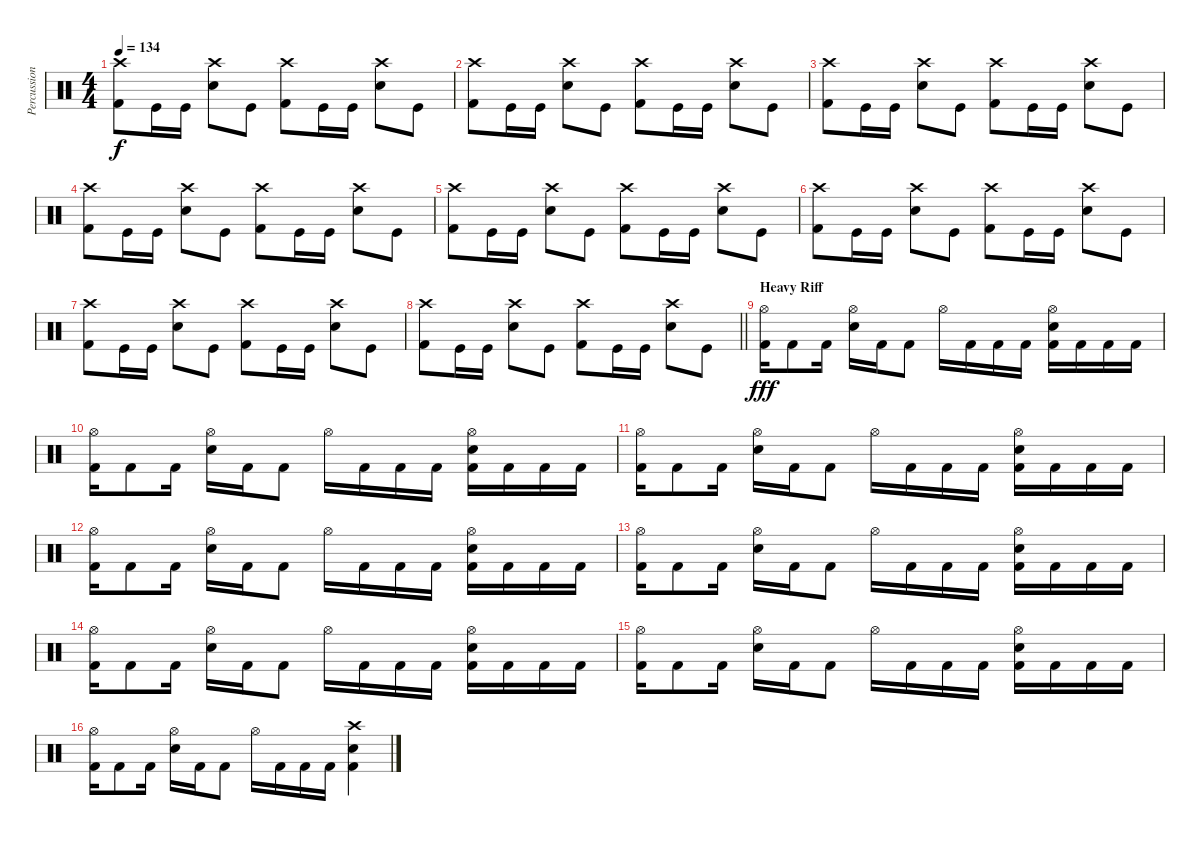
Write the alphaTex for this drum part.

\track ("Percussion" "Percussion") {instrument percussion}
\staff {score}
\articulation defaults
\ts (4 4)
\tempo 134
\clef neutral
\ks c
("Crash high (hit)" "Kick (hit) 2").8{dy f} "Kick (hit)".16 "Kick (hit)".16 ("Crash high (hit)" "Electric Snare (hit)").8 "Kick (hit)".8 ("Crash high (hit)" "Kick (hit) 2").8 "Kick (hit)".16 "Kick (hit)".16 ("Crash high (hit)" "Electric Snare (hit)").8 "Kick (hit)".8 |
("Crash high (hit)" "Kick (hit) 2").8 "Kick (hit)".16 "Kick (hit)".16 ("Crash high (hit)" "Electric Snare (hit)").8 "Kick (hit)".8 ("Crash high (hit)" "Kick (hit) 2").8 "Kick (hit)".16 "Kick (hit)".16 ("Crash high (hit)" "Electric Snare (hit)").8 "Kick (hit)".8 |
("Crash high (hit)" "Kick (hit) 2").8 "Kick (hit)".16 "Kick (hit)".16 ("Crash high (hit)" "Electric Snare (hit)").8 "Kick (hit)".8 ("Crash high (hit)" "Kick (hit) 2").8 "Kick (hit)".16 "Kick (hit)".16 ("Crash high (hit)" "Electric Snare (hit)").8 "Kick (hit)".8 |
("Crash high (hit)" "Kick (hit) 2").8 "Kick (hit)".16 "Kick (hit)".16 ("Crash high (hit)" "Electric Snare (hit)").8 "Kick (hit)".8 ("Crash high (hit)" "Kick (hit) 2").8 "Kick (hit)".16 "Kick (hit)".16 ("Crash high (hit)" "Electric Snare (hit)").8 "Kick (hit)".8 |
("Crash high (hit)" "Kick (hit) 2").8 "Kick (hit)".16 "Kick (hit)".16 ("Crash high (hit)" "Electric Snare (hit)").8 "Kick (hit)".8 ("Crash high (hit)" "Kick (hit) 2").8 "Kick (hit)".16 "Kick (hit)".16 ("Crash high (hit)" "Electric Snare (hit)").8 "Kick (hit)".8 |
("Crash high (hit)" "Kick (hit) 2").8 "Kick (hit)".16 "Kick (hit)".16 ("Crash high (hit)" "Electric Snare (hit)").8 "Kick (hit)".8 ("Crash high (hit)" "Kick (hit) 2").8 "Kick (hit)".16 "Kick (hit)".16 ("Crash high (hit)" "Electric Snare (hit)").8 "Kick (hit)".8 |
("Crash high (hit)" "Kick (hit) 2").8 "Kick (hit)".16 "Kick (hit)".16 ("Crash high (hit)" "Electric Snare (hit)").8 "Kick (hit)".8 ("Crash high (hit)" "Kick (hit) 2").8 "Kick (hit)".16 "Kick (hit)".16 ("Crash high (hit)" "Electric Snare (hit)").8 "Kick (hit)".8 |
\barLineRight lightlight
("Crash high (hit)" "Kick (hit) 2").8 "Kick (hit)".16 "Kick (hit)".16 ("Crash high (hit)" "Electric Snare (hit)").8 "Kick (hit)".8 ("Crash high (hit)" "Kick (hit) 2").8 "Kick (hit)".16 "Kick (hit)".16 ("Crash high (hit)" "Electric Snare (hit)").8 "Kick (hit)".8 |
\section ("" "Heavy Riff")
("Hi-Hat (open)" "Kick (hit) 2").16{dy fff} "Kick (hit) 2".8 "Kick (hit) 2".16 ("Hi-Hat (open)" "Electric Snare (hit)").16 "Kick (hit) 2".16 "Kick (hit) 2".8 "Hi-Hat (open)".16 "Kick (hit) 2".16 "Kick (hit) 2".16 "Kick (hit) 2".16 ("Hi-Hat (open)" "Electric Snare (hit)" "Kick (hit) 2").16 "Kick (hit) 2".16 "Kick (hit) 2".16 "Kick (hit) 2".16 |
("Hi-Hat (open)" "Kick (hit) 2").16 "Kick (hit) 2".8 "Kick (hit) 2".16 ("Hi-Hat (open)" "Electric Snare (hit)").16 "Kick (hit) 2".16 "Kick (hit) 2".8 "Hi-Hat (open)".16 "Kick (hit) 2".16 "Kick (hit) 2".16 "Kick (hit) 2".16 ("Hi-Hat (open)" "Electric Snare (hit)" "Kick (hit) 2").16 "Kick (hit) 2".16 "Kick (hit) 2".16 "Kick (hit) 2".16 |
("Hi-Hat (open)" "Kick (hit) 2").16 "Kick (hit) 2".8 "Kick (hit) 2".16 ("Hi-Hat (open)" "Electric Snare (hit)").16 "Kick (hit) 2".16 "Kick (hit) 2".8 "Hi-Hat (open)".16 "Kick (hit) 2".16 "Kick (hit) 2".16 "Kick (hit) 2".16 ("Hi-Hat (open)" "Electric Snare (hit)" "Kick (hit) 2").16 "Kick (hit) 2".16 "Kick (hit) 2".16 "Kick (hit) 2".16 |
("Hi-Hat (open)" "Kick (hit) 2").16 "Kick (hit) 2".8 "Kick (hit) 2".16 ("Hi-Hat (open)" "Electric Snare (hit)").16 "Kick (hit) 2".16 "Kick (hit) 2".8 "Hi-Hat (open)".16 "Kick (hit) 2".16 "Kick (hit) 2".16 "Kick (hit) 2".16 ("Hi-Hat (open)" "Electric Snare (hit)" "Kick (hit) 2").16 "Kick (hit) 2".16 "Kick (hit) 2".16 "Kick (hit) 2".16 |
("Hi-Hat (open)" "Kick (hit) 2").16 "Kick (hit) 2".8 "Kick (hit) 2".16 ("Hi-Hat (open)" "Electric Snare (hit)").16 "Kick (hit) 2".16 "Kick (hit) 2".8 "Hi-Hat (open)".16 "Kick (hit) 2".16 "Kick (hit) 2".16 "Kick (hit) 2".16 ("Hi-Hat (open)" "Electric Snare (hit)" "Kick (hit) 2").16 "Kick (hit) 2".16 "Kick (hit) 2".16 "Kick (hit) 2".16 |
("Hi-Hat (open)" "Kick (hit) 2").16 "Kick (hit) 2".8 "Kick (hit) 2".16 ("Hi-Hat (open)" "Electric Snare (hit)").16 "Kick (hit) 2".16 "Kick (hit) 2".8 "Hi-Hat (open)".16 "Kick (hit) 2".16 "Kick (hit) 2".16 "Kick (hit) 2".16 ("Hi-Hat (open)" "Electric Snare (hit)" "Kick (hit) 2").16 "Kick (hit) 2".16 "Kick (hit) 2".16 "Kick (hit) 2".16 |
("Hi-Hat (open)" "Kick (hit) 2").16 "Kick (hit) 2".8 "Kick (hit) 2".16 ("Hi-Hat (open)" "Electric Snare (hit)").16 "Kick (hit) 2".16 "Kick (hit) 2".8 "Hi-Hat (open)".16 "Kick (hit) 2".16 "Kick (hit) 2".16 "Kick (hit) 2".16 ("Hi-Hat (open)" "Electric Snare (hit)" "Kick (hit) 2").16 "Kick (hit) 2".16 "Kick (hit) 2".16 "Kick (hit) 2".16 |
("Hi-Hat (open)" "Kick (hit) 2").16 "Kick (hit) 2".8 "Kick (hit) 2".16 ("Hi-Hat (open)" "Electric Snare (hit)").16 "Kick (hit) 2".16 "Kick (hit) 2".8 "Hi-Hat (open)".16 "Kick (hit) 2".16 "Kick (hit) 2".16 "Kick (hit) 2".16 ("Crash high (hit)" "Electric Snare (hit)" "Kick (hit) 2").4
